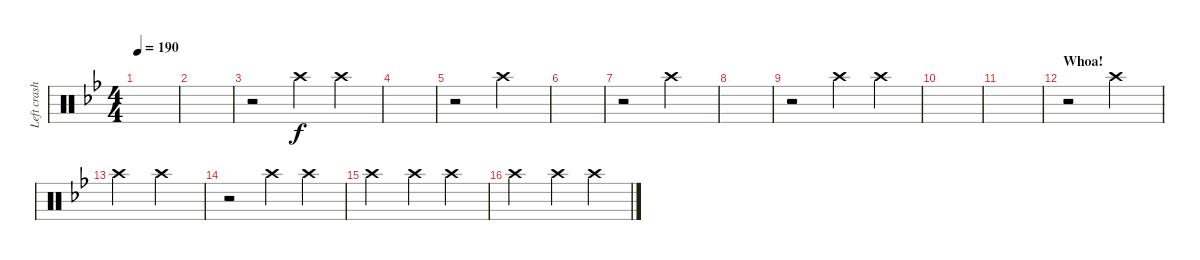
\track ("Left crash" "Left crash") {instrument percussion}
\staff {score}
\articulation defaults
\ts (4 4)
\tempo 190
\clef neutral
\ks bb
|
|
r.2 "Crash high (hit)".4 "Crash high (hit)".4 |
|
r.2 "Crash high (hit)".2 |
|
r.2 "Crash high (hit)".2 |
|
r.2 "Crash high (hit)".4 "Crash high (hit)".4 |
|
|
\section ("" "Whoa!")
r.2 "Crash high (hit)".2 |
"Crash high (hit)".2 "Crash high (hit)".2 |
r.2 "Crash high (hit)".4 "Crash high (hit)".4 |
"Crash high (hit)".2 "Crash high (hit)".4 "Crash high (hit)".4 |
"Crash high (hit)".2 "Crash high (hit)".4 "Crash high (hit)".4
